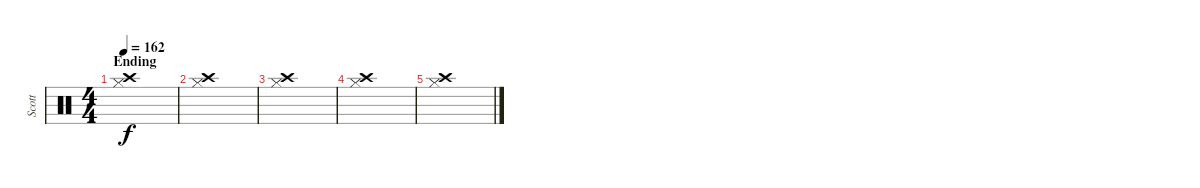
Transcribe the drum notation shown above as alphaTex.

\track ("Scott" "Scott") {instrument percussion}
\staff {score}
\articulation defaults
\ts (4 4)
\section ("" "Ending")
\tempo 162
\clef neutral
\ks c
("Crash high (hit)" "Hi-Hat (closed)").1{dy f} |
("Crash high (hit)" "Hi-Hat (closed)").1 |
("Crash high (hit)" "Hi-Hat (closed)").1 |
("Crash high (hit)" "Hi-Hat (closed)").1 |
("Crash high (hit)" "Hi-Hat (closed)").1
